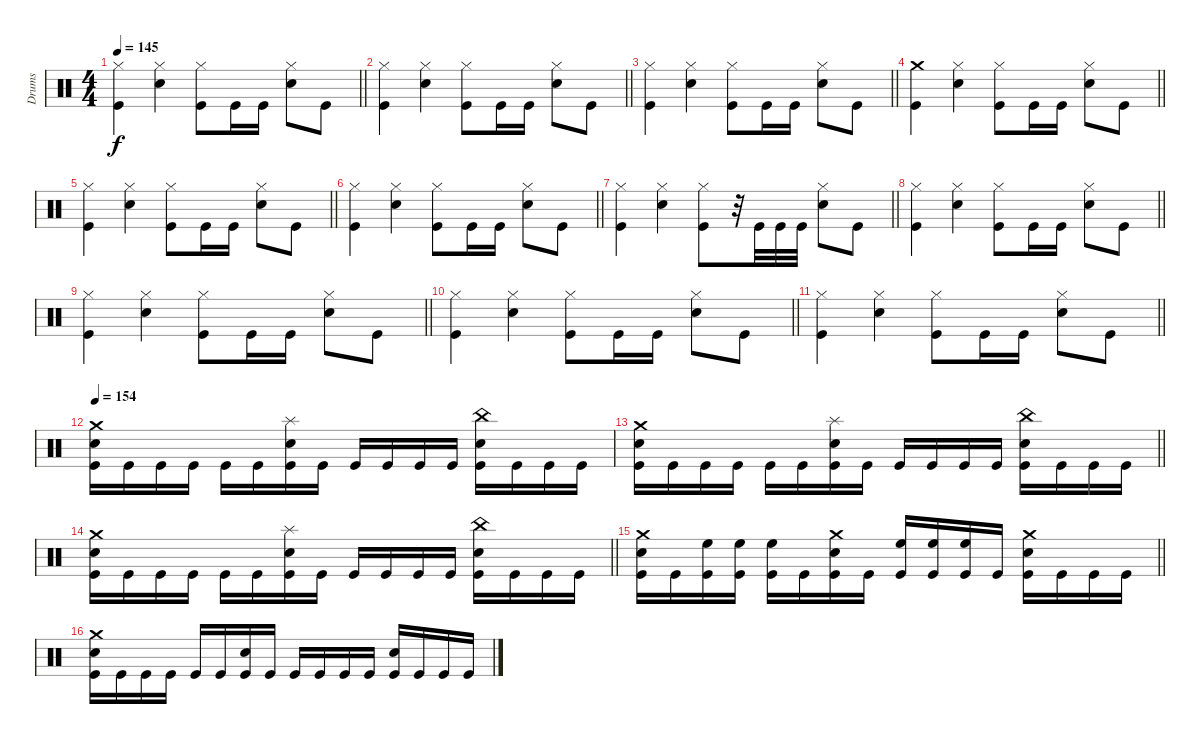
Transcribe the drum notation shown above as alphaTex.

\track ("Drums" "Drums") {instrument percussion}
\staff {score}
\articulation defaults
\ts (4 4)
\tempo 145
\clef neutral
\barLineRight lightlight
\ks c
("Hi-Hat (closed)" "Kick (hit)").4{dy f} ("Hi-Hat (closed)" "Snare (hit) 2").4 ("Hi-Hat (closed)" "Kick (hit)").8 "Kick (hit)".16 "Kick (hit)".16 ("Hi-Hat (closed)" "Snare (hit) 2").8 "Kick (hit)".8 |
\barLineRight lightlight
("Hi-Hat (closed)" "Kick (hit)").4 ("Hi-Hat (closed)" "Snare (hit) 2").4 ("Hi-Hat (closed)" "Kick (hit)").8 "Kick (hit)".16 "Kick (hit)".16 ("Hi-Hat (closed)" "Snare (hit) 2").8 "Kick (hit)".8 |
\barLineRight lightlight
("Hi-Hat (closed)" "Kick (hit)").4 ("Hi-Hat (closed)" "Snare (hit) 2").4 ("Hi-Hat (closed)" "Kick (hit)").8 "Kick (hit)".16 "Kick (hit)".16 ("Hi-Hat (closed)" "Snare (hit) 2").8 "Kick (hit)".8 |
\barLineRight lightlight
("Crash medium (hit)" "Kick (hit)").4 ("Hi-Hat (closed)" "Snare (hit) 2").4 ("Hi-Hat (closed)" "Kick (hit)").8 "Kick (hit)".16 "Kick (hit)".16 ("Hi-Hat (closed)" "Snare (hit) 2").8 "Kick (hit)".8 |
\barLineRight lightlight
("Hi-Hat (closed)" "Kick (hit)").4 ("Hi-Hat (closed)" "Snare (hit) 2").4 ("Hi-Hat (closed)" "Kick (hit)").8 "Kick (hit)".16 "Kick (hit)".16 ("Hi-Hat (closed)" "Snare (hit) 2").8 "Kick (hit)".8 |
\barLineRight lightlight
("Hi-Hat (closed)" "Kick (hit)").4 ("Hi-Hat (closed)" "Snare (hit) 2").4 ("Hi-Hat (closed)" "Kick (hit)").8 "Kick (hit)".16 "Kick (hit)".16 ("Hi-Hat (closed)" "Snare (hit) 2").8 "Kick (hit)".8 |
\barLineRight lightlight
("Hi-Hat (closed)" "Kick (hit)").4 ("Hi-Hat (closed)" "Snare (hit) 2").4 ("Hi-Hat (closed)" "Kick (hit)").8 r.32 "Kick (hit)".32 "Kick (hit)".32 "Kick (hit)".32 ("Hi-Hat (closed)" "Snare (hit) 2").8 "Kick (hit)".8 |
\barLineRight lightlight
("Hi-Hat (closed)" "Kick (hit)").4 ("Hi-Hat (closed)" "Snare (hit) 2").4 ("Hi-Hat (closed)" "Kick (hit)").8 "Kick (hit)".16 "Kick (hit)".16 ("Hi-Hat (closed)" "Snare (hit) 2").8 "Kick (hit)".8 |
\barLineRight lightlight
("Hi-Hat (closed)" "Kick (hit)").4 ("Hi-Hat (closed)" "Snare (hit) 2").4 ("Hi-Hat (closed)" "Kick (hit)").8 "Kick (hit)".16 "Kick (hit)".16 ("Hi-Hat (closed)" "Snare (hit) 2").8 "Kick (hit)".8 |
\barLineRight lightlight
("Hi-Hat (closed)" "Kick (hit)").4 ("Hi-Hat (closed)" "Snare (hit) 2").4 ("Hi-Hat (closed)" "Kick (hit)").8 "Kick (hit)".16 "Kick (hit)".16 ("Hi-Hat (closed)" "Snare (hit) 2").8 "Kick (hit)".8 |
\barLineRight lightlight
("Hi-Hat (closed)" "Kick (hit)").4 ("Hi-Hat (closed)" "Snare (hit) 2").4 ("Hi-Hat (closed)" "Kick (hit)").8 "Kick (hit)".16 "Kick (hit)".16 ("Hi-Hat (closed)" "Snare (hit) 2").8 "Kick (hit)".8 |
\tempo 154
("Crash medium (hit)" "Snare (hit) 2" "Kick (hit)").16 "Kick (hit)".16 "Kick (hit)".16 "Kick (hit)".16 "Kick (hit)".16 "Kick (hit)".16 ("Splash (hit)" "Snare (hit) 2" "Kick (hit)").16 "Kick (hit)".16 "Kick (hit)".16 "Kick (hit)".16 "Kick (hit)".16 "Kick (hit)".16 ("China (hit)" "Snare (hit) 2" "Kick (hit)").16 "Kick (hit)".16 "Kick (hit)".16 "Kick (hit)".16 |
\barLineRight lightlight
("Crash medium (hit)" "Snare (hit) 2" "Kick (hit)").16 "Kick (hit)".16 "Kick (hit)".16 "Kick (hit)".16 "Kick (hit)".16 "Kick (hit)".16 ("Splash (hit)" "Snare (hit) 2" "Kick (hit)").16 "Kick (hit)".16 "Kick (hit)".16 "Kick (hit)".16 "Kick (hit)".16 "Kick (hit)".16 ("China (hit)" "Snare (hit) 2" "Kick (hit)").16 "Kick (hit)".16 "Kick (hit)".16 "Kick (hit)".16 |
\barLineRight lightlight
("Crash medium (hit)" "Snare (hit) 2" "Kick (hit)").16 "Kick (hit)".16 "Kick (hit)".16 "Kick (hit)".16 "Kick (hit)".16 "Kick (hit)".16 ("Splash (hit)" "Snare (hit) 2" "Kick (hit)").16 "Kick (hit)".16 "Kick (hit)".16 "Kick (hit)".16 "Kick (hit)".16 "Kick (hit)".16 ("China (hit)" "Snare (hit) 2" "Kick (hit)").16 "Kick (hit)".16 "Kick (hit)".16 "Kick (hit)".16 |
\barLineRight lightlight
("Crash medium (hit)" "Snare (hit) 2" "Kick (hit)").16 "Kick (hit)".16 ("High Floor Tom (hit)" "Kick (hit)").16 ("High Floor Tom (hit)" "Kick (hit)").16 ("High Floor Tom (hit)" "Kick (hit)").16 "Kick (hit)".16 ("Crash medium (hit)" "Snare (hit) 2" "Kick (hit)").16 "Kick (hit)".16 ("High Floor Tom (hit)" "Kick (hit)").16 ("High Floor Tom (hit)" "Kick (hit)").16 ("High Floor Tom (hit)" "Kick (hit)").16 "Kick (hit)".16 ("Crash medium (hit)" "Snare (hit) 2" "Kick (hit)").16 "Kick (hit)".16 "Kick (hit)".16 "Kick (hit)".16 |
("Crash medium (hit)" "Snare (hit) 2" "Kick (hit)").16 "Kick (hit)".16 "Kick (hit)".16 "Kick (hit)".16 "Kick (hit)".16 "Kick (hit)".16 ("Snare (hit) 2" "Kick (hit)").16 "Kick (hit)".16 "Kick (hit)".16 "Kick (hit)".16 "Kick (hit)".16 "Kick (hit)".16 ("Snare (hit) 2" "Kick (hit)").16 "Kick (hit)".16 "Kick (hit)".16 "Kick (hit)".16
